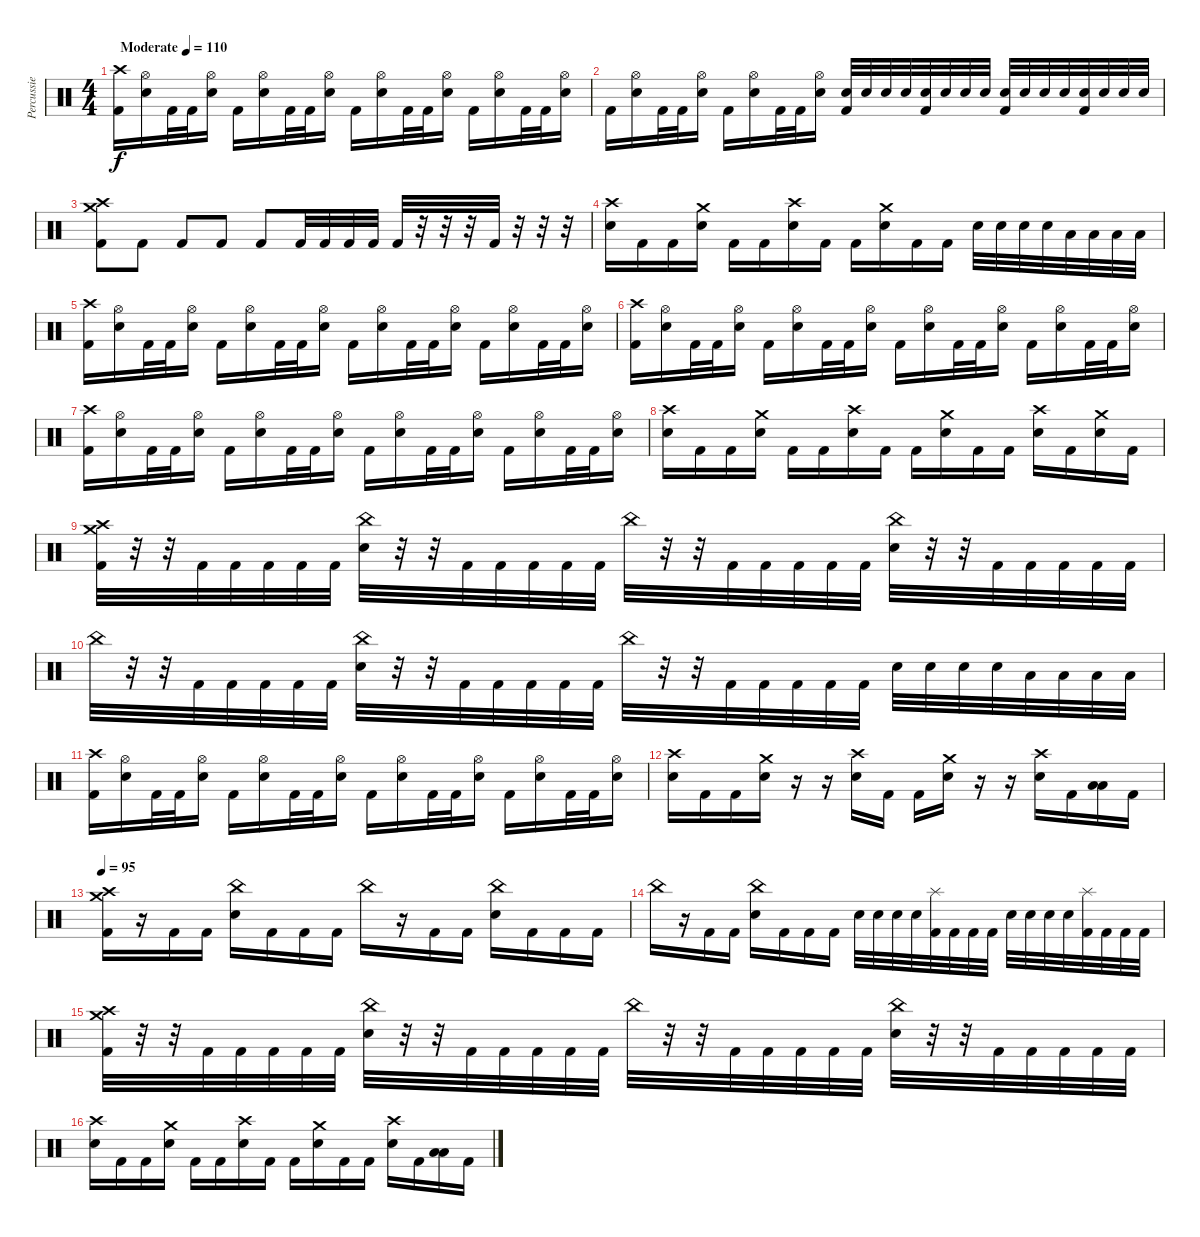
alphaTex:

\track ("Percussie" "Percussie") {instrument percussion}
\staff {score}
\articulation defaults
\ts (4 4)
\tempo (110 "Moderate")
\clef neutral
\ks c
("Crash high (hit)" "Kick (hit) 2").16{dy f} ("Hi-Hat (open)" "Electric Snare (hit)").16 "Kick (hit) 2".32 "Kick (hit) 2".32 ("Hi-Hat (open)" "Electric Snare (hit)").16 "Kick (hit) 2".16 ("Hi-Hat (open)" "Electric Snare (hit)").16 "Kick (hit) 2".32 "Kick (hit) 2".32 ("Hi-Hat (open)" "Electric Snare (hit)").16 "Kick (hit) 2".16 ("Hi-Hat (open)" "Electric Snare (hit)").16 "Kick (hit) 2".32 "Kick (hit) 2".32 ("Hi-Hat (open)" "Electric Snare (hit)").16 "Kick (hit) 2".16 ("Hi-Hat (open)" "Electric Snare (hit)").16 "Kick (hit) 2".32 "Kick (hit) 2".32 ("Hi-Hat (open)" "Electric Snare (hit)").16 |
"Kick (hit) 2".16 ("Hi-Hat (open)" "Electric Snare (hit)").16 "Kick (hit) 2".32 "Kick (hit) 2".32 ("Hi-Hat (open)" "Electric Snare (hit)").16 "Kick (hit) 2".16 ("Hi-Hat (open)" "Electric Snare (hit)").16 "Kick (hit) 2".32 "Kick (hit) 2".32 ("Hi-Hat (open)" "Electric Snare (hit)").16 ("Electric Snare (hit)" "Kick (hit) 2").32 "Electric Snare (hit)".32 "Electric Snare (hit)".32 "Electric Snare (hit)".32 ("Electric Snare (hit)" "Kick (hit) 2").32 "Electric Snare (hit)".32 "Electric Snare (hit)".32 "Electric Snare (hit)".32 ("Electric Snare (hit)" "Kick (hit) 2").32 "Electric Snare (hit)".32 "Electric Snare (hit)".32 "Electric Snare (hit)".32 ("Electric Snare (hit)" "Kick (hit) 2").32 "Electric Snare (hit)".32 "Electric Snare (hit)".32 "Electric Snare (hit)".32 |
("Crash medium (hit)" "Crash high (hit)" "Kick (hit) 2").8 "Kick (hit) 2".8 "Kick (hit) 2".8 "Kick (hit) 2".8 "Kick (hit) 2".8 "Kick (hit) 2".32 "Kick (hit) 2".32 "Kick (hit) 2".32 "Kick (hit) 2".32 "Kick (hit) 2".32 r.32 r.32 r.32 "Kick (hit) 2".32 r.32 r.32 r.32 |
("Crash high (hit)" "Electric Snare (hit)").16 "Kick (hit) 2".16 "Kick (hit) 2".16 ("Crash medium (hit)" "Electric Snare (hit)").16 "Kick (hit) 2".16 "Kick (hit) 2".16 ("Crash high (hit)" "Electric Snare (hit)").16 "Kick (hit) 2".16 "Kick (hit) 2".16 ("Crash medium (hit)" "Electric Snare (hit)").16 "Kick (hit) 2".16 "Kick (hit) 2".16 "Electric Snare (hit)".32 "Electric Snare (hit)".32 "Electric Snare (hit)".32 "Electric Snare (hit)".32 "Low Tom (hit)".32 "Low Tom (hit)".32 "Low Tom (hit)".32 "Low Tom (hit)".32 |
("Crash high (hit)" "Kick (hit) 2").16 ("Hi-Hat (open)" "Electric Snare (hit)").16 "Kick (hit) 2".32 "Kick (hit) 2".32 ("Hi-Hat (open)" "Electric Snare (hit)").16 "Kick (hit) 2".16 ("Hi-Hat (open)" "Electric Snare (hit)").16 "Kick (hit) 2".32 "Kick (hit) 2".32 ("Hi-Hat (open)" "Electric Snare (hit)").16 "Kick (hit) 2".16 ("Hi-Hat (open)" "Electric Snare (hit)").16 "Kick (hit) 2".32 "Kick (hit) 2".32 ("Hi-Hat (open)" "Electric Snare (hit)").16 "Kick (hit) 2".16 ("Hi-Hat (open)" "Electric Snare (hit)").16 "Kick (hit) 2".32 "Kick (hit) 2".32 ("Hi-Hat (open)" "Electric Snare (hit)").16 |
("Crash high (hit)" "Kick (hit) 2").16 ("Hi-Hat (open)" "Electric Snare (hit)").16 "Kick (hit) 2".32 "Kick (hit) 2".32 ("Hi-Hat (open)" "Electric Snare (hit)").16 "Kick (hit) 2".16 ("Hi-Hat (open)" "Electric Snare (hit)").16 "Kick (hit) 2".32 "Kick (hit) 2".32 ("Hi-Hat (open)" "Electric Snare (hit)").16 "Kick (hit) 2".16 ("Hi-Hat (open)" "Electric Snare (hit)").16 "Kick (hit) 2".32 "Kick (hit) 2".32 ("Hi-Hat (open)" "Electric Snare (hit)").16 "Kick (hit) 2".16 ("Hi-Hat (open)" "Electric Snare (hit)").16 "Kick (hit) 2".32 "Kick (hit) 2".32 ("Hi-Hat (open)" "Electric Snare (hit)").16 |
("Crash high (hit)" "Kick (hit) 2").16 ("Hi-Hat (open)" "Electric Snare (hit)").16 "Kick (hit) 2".32 "Kick (hit) 2".32 ("Hi-Hat (open)" "Electric Snare (hit)").16 "Kick (hit) 2".16 ("Hi-Hat (open)" "Electric Snare (hit)").16 "Kick (hit) 2".32 "Kick (hit) 2".32 ("Hi-Hat (open)" "Electric Snare (hit)").16 "Kick (hit) 2".16 ("Hi-Hat (open)" "Electric Snare (hit)").16 "Kick (hit) 2".32 "Kick (hit) 2".32 ("Hi-Hat (open)" "Electric Snare (hit)").16 "Kick (hit) 2".16 ("Hi-Hat (open)" "Electric Snare (hit)").16 "Kick (hit) 2".32 "Kick (hit) 2".32 ("Hi-Hat (open)" "Electric Snare (hit)").16 |
("Crash high (hit)" "Electric Snare (hit)").16 "Kick (hit) 2".16 "Kick (hit) 2".16 ("Crash medium (hit)" "Electric Snare (hit)").16 "Kick (hit) 2".16 "Kick (hit) 2".16 ("Crash high (hit)" "Electric Snare (hit)").16 "Kick (hit) 2".16 "Kick (hit) 2".16 ("Crash medium (hit)" "Electric Snare (hit)").16 "Kick (hit) 2".16 "Kick (hit) 2".16 ("Crash high (hit)" "Electric Snare (hit)").16 "Kick (hit) 2".16 ("Crash medium (hit)" "Electric Snare (hit)").16 "Kick (hit) 2".16 |
("Crash medium (hit)" "Crash high (hit)" "Kick (hit) 2").32 r.32 r.32 "Kick (hit) 2".32 "Kick (hit) 2".32 "Kick (hit) 2".32 "Kick (hit) 2".32 "Kick (hit) 2".32 ("China (hit)" "Electric Snare (hit)").32 r.32 r.32 "Kick (hit) 2".32 "Kick (hit) 2".32 "Kick (hit) 2".32 "Kick (hit) 2".32 "Kick (hit) 2".32 "China (hit)".32 r.32 r.32 "Kick (hit) 2".32 "Kick (hit) 2".32 "Kick (hit) 2".32 "Kick (hit) 2".32 "Kick (hit) 2".32 ("China (hit)" "Electric Snare (hit)").32 r.32 r.32 "Kick (hit) 2".32 "Kick (hit) 2".32 "Kick (hit) 2".32 "Kick (hit) 2".32 "Kick (hit) 2".32 |
"China (hit)".32 r.32 r.32 "Kick (hit) 2".32 "Kick (hit) 2".32 "Kick (hit) 2".32 "Kick (hit) 2".32 "Kick (hit) 2".32 ("China (hit)" "Electric Snare (hit)").32 r.32 r.32 "Kick (hit) 2".32 "Kick (hit) 2".32 "Kick (hit) 2".32 "Kick (hit) 2".32 "Kick (hit) 2".32 "China (hit)".32 r.32 r.32 "Kick (hit) 2".32 "Kick (hit) 2".32 "Kick (hit) 2".32 "Kick (hit) 2".32 "Kick (hit) 2".32 "Electric Snare (hit)".32 "Electric Snare (hit)".32 "Electric Snare (hit)".32 "Electric Snare (hit)".32 "Low Tom (hit)".32 "Low Tom (hit)".32 "Low Tom (hit)".32 "Low Tom (hit)".32 |
("Crash high (hit)" "Kick (hit) 2").16 ("Hi-Hat (open)" "Electric Snare (hit)").16 "Kick (hit) 2".32 "Kick (hit) 2".32 ("Hi-Hat (open)" "Electric Snare (hit)").16 "Kick (hit) 2".16 ("Hi-Hat (open)" "Electric Snare (hit)").16 "Kick (hit) 2".32 "Kick (hit) 2".32 ("Hi-Hat (open)" "Electric Snare (hit)").16 "Kick (hit) 2".16 ("Hi-Hat (open)" "Electric Snare (hit)").16 "Kick (hit) 2".32 "Kick (hit) 2".32 ("Hi-Hat (open)" "Electric Snare (hit)").16 "Kick (hit) 2".16 ("Hi-Hat (open)" "Electric Snare (hit)").16 "Kick (hit) 2".32 "Kick (hit) 2".32 ("Hi-Hat (open)" "Electric Snare (hit)").16 |
("Crash high (hit)" "Electric Snare (hit)").16 "Kick (hit) 2".16 "Kick (hit) 2".16 ("Crash medium (hit)" "Electric Snare (hit)").16 r.16 r.16 ("Crash high (hit)" "Electric Snare (hit)").16 "Kick (hit) 2".16 "Kick (hit) 2".16 ("Crash medium (hit)" "Electric Snare (hit)").16 r.16 r.16 ("Crash high (hit)" "Electric Snare (hit)").16 "Kick (hit) 2".16 ("Low Tom (hit)" "Low Floor Tom (hit)").16 "Kick (hit) 2".16 |
\tempo 95
("Crash medium (hit)" "Crash high (hit)" "Kick (hit) 2").16 r.16 "Kick (hit) 2".16 "Kick (hit) 2".16 ("China (hit)" "Electric Snare (hit)").16 "Kick (hit) 2".16 "Kick (hit) 2".16 "Kick (hit) 2".16 "China (hit)".16 r.16 "Kick (hit) 2".16 "Kick (hit) 2".16 ("China (hit)" "Electric Snare (hit)").16 "Kick (hit) 2".16 "Kick (hit) 2".16 "Kick (hit) 2".16 |
"China (hit)".16 r.16 "Kick (hit) 2".16 "Kick (hit) 2".16 ("China (hit)" "Electric Snare (hit)").16 "Kick (hit) 2".16 "Kick (hit) 2".16 "Kick (hit) 2".16 "Electric Snare (hit)".32 "Electric Snare (hit)".32 "Electric Snare (hit)".32 "Electric Snare (hit)".32 ("Splash (hit)" "Kick (hit) 2").32 "Kick (hit) 2".32 "Kick (hit) 2".32 "Kick (hit) 2".32 "Electric Snare (hit)".32 "Electric Snare (hit)".32 "Electric Snare (hit)".32 "Electric Snare (hit)".32 ("Splash (hit)" "Kick (hit) 2").32 "Kick (hit) 2".32 "Kick (hit) 2".32 "Kick (hit) 2".32 |
("Crash medium (hit)" "Crash high (hit)" "Kick (hit) 2").32 r.32 r.32 "Kick (hit) 2".32 "Kick (hit) 2".32 "Kick (hit) 2".32 "Kick (hit) 2".32 "Kick (hit) 2".32 ("China (hit)" "Electric Snare (hit)").32 r.32 r.32 "Kick (hit) 2".32 "Kick (hit) 2".32 "Kick (hit) 2".32 "Kick (hit) 2".32 "Kick (hit) 2".32 "China (hit)".32 r.32 r.32 "Kick (hit) 2".32 "Kick (hit) 2".32 "Kick (hit) 2".32 "Kick (hit) 2".32 "Kick (hit) 2".32 ("China (hit)" "Electric Snare (hit)").32 r.32 r.32 "Kick (hit) 2".32 "Kick (hit) 2".32 "Kick (hit) 2".32 "Kick (hit) 2".32 "Kick (hit) 2".32 |
("Crash high (hit)" "Electric Snare (hit)").16 "Kick (hit) 2".16 "Kick (hit) 2".16 ("Crash medium (hit)" "Electric Snare (hit)").16 "Kick (hit) 2".16 "Kick (hit) 2".16 ("Crash high (hit)" "Electric Snare (hit)").16 "Kick (hit) 2".16 "Kick (hit) 2".16 ("Crash medium (hit)" "Electric Snare (hit)").16 "Kick (hit) 2".16 "Kick (hit) 2".16 ("Crash high (hit)" "Electric Snare (hit)").16 "Kick (hit) 2".16 ("Low Tom (hit)" "Low Floor Tom (hit)").16 "Kick (hit) 2".16
